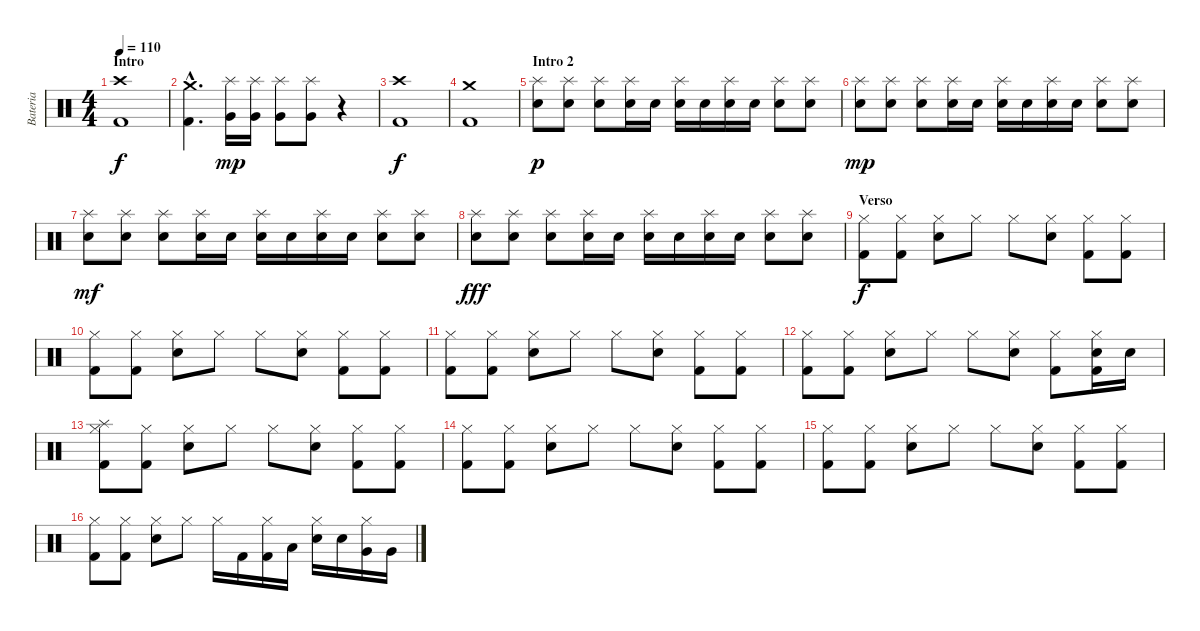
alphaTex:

\track ("Bateria" "Bateria") {instrument percussion}
\staff {score}
\articulation defaults
\ts (4 4)
\section ("" "Intro")
\tempo 110
\clef neutral
\ks c
("Crash high (hit)" "Kick (hit) 2").1{dy f} |
("Crash medium (hit)"{hac} "Kick (hit) 2"{hac}).4{d} ("Very Low Tom (hit)" "Splash (hit)").16{dy mp} ("Very Low Tom (hit)" "Splash (hit)").16 ("Very Low Tom (hit)" "Splash (hit)").8 ("Very Low Tom (hit)" "Splash (hit)").8 r.4 |
("Crash high (hit)" "Kick (hit) 2").1{dy f} |
("Kick (hit) 2" "Crash medium (hit)").1 |
\section ("" "Intro 2")
("Splash (hit)" "Snare (hit) 2").8{dy p} ("Splash (hit)" "Snare (hit) 2").8 ("Splash (hit)" "Snare (hit) 2").8 ("Splash (hit)" "Snare (hit) 2").16 "Snare (hit) 2".16 ("Splash (hit)" "Snare (hit) 2").16 "Snare (hit) 2".16 ("Splash (hit)" "Snare (hit) 2").16 "Snare (hit) 2".16 ("Splash (hit)" "Snare (hit) 2").8 ("Splash (hit)" "Snare (hit) 2").8 |
("Splash (hit)" "Snare (hit) 2").8{dy mp} ("Splash (hit)" "Snare (hit) 2").8 ("Splash (hit)" "Snare (hit) 2").8 ("Splash (hit)" "Snare (hit) 2").16 "Snare (hit) 2".16 ("Splash (hit)" "Snare (hit) 2").16 "Snare (hit) 2".16 ("Splash (hit)" "Snare (hit) 2").16 "Snare (hit) 2".16 ("Splash (hit)" "Snare (hit) 2").8 ("Splash (hit)" "Snare (hit) 2").8 |
("Splash (hit)" "Snare (hit) 2").8{dy mf} ("Splash (hit)" "Snare (hit) 2").8 ("Splash (hit)" "Snare (hit) 2").8 ("Splash (hit)" "Snare (hit) 2").16 "Snare (hit) 2".16 ("Splash (hit)" "Snare (hit) 2").16 "Snare (hit) 2".16 ("Splash (hit)" "Snare (hit) 2").16 "Snare (hit) 2".16 ("Splash (hit)" "Snare (hit) 2").8 ("Splash (hit)" "Snare (hit) 2").8 |
("Splash (hit)" "Snare (hit) 2").8{dy fff} ("Splash (hit)" "Snare (hit) 2").8 ("Splash (hit)" "Snare (hit) 2").8 ("Splash (hit)" "Snare (hit) 2").16 "Snare (hit) 2".16 ("Splash (hit)" "Snare (hit) 2").16 "Snare (hit) 2".16 ("Splash (hit)" "Snare (hit) 2").16 "Snare (hit) 2".16 ("Splash (hit)" "Snare (hit) 2").8 ("Splash (hit)" "Snare (hit) 2").8 |
\section ("" "Verso")
("Hi-Hat (closed)" "Kick (hit) 2").8{dy f} ("Hi-Hat (closed)" "Kick (hit) 2").8 ("Hi-Hat (closed)" "Snare (hit) 2").8 "Hi-Hat (closed)".8 "Hi-Hat (closed)".8 ("Hi-Hat (closed)" "Snare (hit) 2").8 ("Hi-Hat (closed)" "Kick (hit) 2").8 ("Hi-Hat (closed)" "Kick (hit) 2").8 |
("Hi-Hat (closed)" "Kick (hit) 2").8 ("Hi-Hat (closed)" "Kick (hit) 2").8 ("Hi-Hat (closed)" "Snare (hit) 2").8 "Hi-Hat (closed)".8 "Hi-Hat (closed)".8 ("Hi-Hat (closed)" "Snare (hit) 2").8 ("Hi-Hat (closed)" "Kick (hit) 2").8 ("Hi-Hat (closed)" "Kick (hit) 2").8 |
("Hi-Hat (closed)" "Kick (hit) 2").8 ("Hi-Hat (closed)" "Kick (hit) 2").8 ("Hi-Hat (closed)" "Snare (hit) 2").8 "Hi-Hat (closed)".8 "Hi-Hat (closed)".8 ("Hi-Hat (closed)" "Snare (hit) 2").8 ("Hi-Hat (closed)" "Kick (hit) 2").8 ("Hi-Hat (closed)" "Kick (hit) 2").8 |
("Hi-Hat (closed)" "Kick (hit) 2").8 ("Hi-Hat (closed)" "Kick (hit) 2").8 ("Hi-Hat (closed)" "Snare (hit) 2").8 "Hi-Hat (closed)".8 "Hi-Hat (closed)".8 ("Hi-Hat (closed)" "Snare (hit) 2").8 ("Hi-Hat (closed)" "Kick (hit) 2").8 ("Hi-Hat (closed)" "Kick (hit) 2" "Snare (hit) 2").16 "Snare (hit) 2".16 |
("Hi-Hat (closed)" "Kick (hit) 2" "Splash (hit)").8 ("Hi-Hat (closed)" "Kick (hit) 2").8 ("Hi-Hat (closed)" "Snare (hit) 2").8 "Hi-Hat (closed)".8 "Hi-Hat (closed)".8 ("Hi-Hat (closed)" "Snare (hit) 2").8 ("Hi-Hat (closed)" "Kick (hit) 2").8 ("Hi-Hat (closed)" "Kick (hit) 2").8 |
("Hi-Hat (closed)" "Kick (hit) 2").8 ("Hi-Hat (closed)" "Kick (hit) 2").8 ("Hi-Hat (closed)" "Snare (hit) 2").8 "Hi-Hat (closed)".8 "Hi-Hat (closed)".8 ("Hi-Hat (closed)" "Snare (hit) 2").8 ("Hi-Hat (closed)" "Kick (hit) 2").8 ("Hi-Hat (closed)" "Kick (hit) 2").8 |
("Hi-Hat (closed)" "Kick (hit) 2").8 ("Hi-Hat (closed)" "Kick (hit) 2").8 ("Hi-Hat (closed)" "Snare (hit) 2").8 "Hi-Hat (closed)".8 "Hi-Hat (closed)".8 ("Hi-Hat (closed)" "Snare (hit) 2").8 ("Hi-Hat (closed)" "Kick (hit) 2").8 ("Hi-Hat (closed)" "Kick (hit) 2").8 |
("Hi-Hat (closed)" "Kick (hit) 2").8 ("Hi-Hat (closed)" "Kick (hit) 2").8 ("Hi-Hat (closed)" "Snare (hit) 2").8 "Hi-Hat (closed)".8 "Hi-Hat (closed)".16 "Kick (hit) 2".16 ("Hi-Hat (closed)" "Kick (hit) 2").16 "Low Tom (hit)".16 ("Hi-Hat (closed)" "Snare (hit) 2").16 "Snare (hit) 2".16 ("Hi-Hat (closed)" "Very Low Tom (hit)").16 "Very Low Tom (hit)".16
